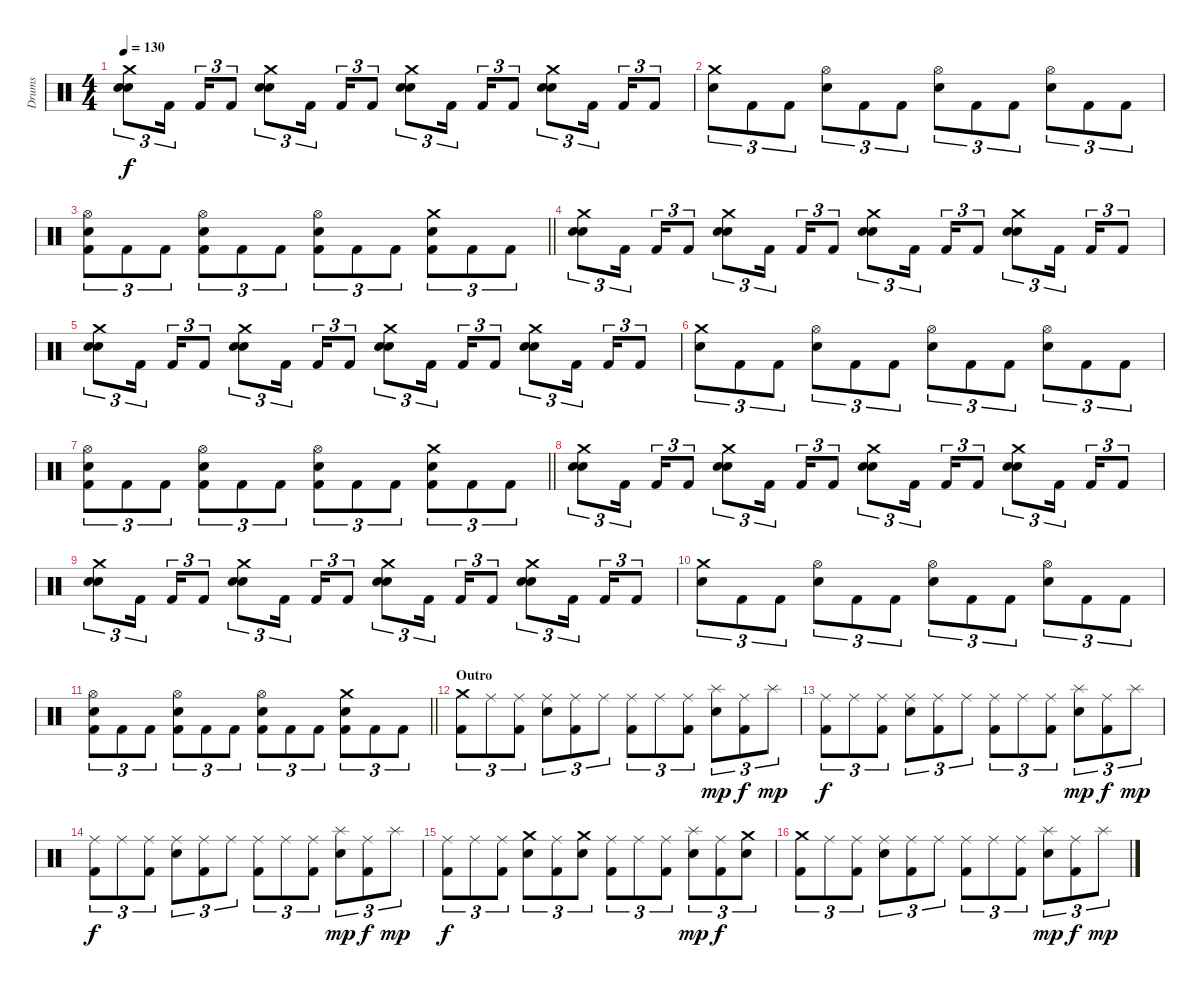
\track ("Drums" "Drums") {instrument percussion}
\staff {score}
\articulation defaults
\ts (4 4)
\tempo 130
\clef neutral
\ks c
("Crash medium (hit)" "Electric Snare (hit)" "Electric Snare (hit)").8{tu (3 2) dy f} "Kick (hit) 2".16{tu (3 2) beam splitsecondary} "Kick (hit) 2".16{tu (3 2)} "Kick (hit) 2".8{tu (3 2)} ("Crash medium (hit)" "Electric Snare (hit)" "Electric Snare (hit)").8{tu (3 2)} "Kick (hit) 2".16{tu (3 2) beam splitsecondary} "Kick (hit) 2".16{tu (3 2)} "Kick (hit) 2".8{tu (3 2)} ("Crash medium (hit)" "Electric Snare (hit)" "Electric Snare (hit)").8{tu (3 2)} "Kick (hit) 2".16{tu (3 2) beam splitsecondary} "Kick (hit) 2".16{tu (3 2)} "Kick (hit) 2".8{tu (3 2)} ("Crash medium (hit)" "Electric Snare (hit)" "Electric Snare (hit)").8{tu (3 2)} "Kick (hit) 2".16{tu (3 2) beam splitsecondary} "Kick (hit) 2".16{tu (3 2)} "Kick (hit) 2".8{tu (3 2)} |
("Crash medium (hit)" "Electric Snare (hit)").8{tu (3 2)} "Kick (hit) 2".8{tu (3 2)} "Kick (hit) 2".8{tu (3 2)} ("Hi-Hat (open)" "Electric Snare (hit)").8{tu (3 2)} "Kick (hit) 2".8{tu (3 2)} "Kick (hit) 2".8{tu (3 2)} ("Hi-Hat (open)" "Electric Snare (hit)").8{tu (3 2)} "Kick (hit) 2".8{tu (3 2)} "Kick (hit) 2".8{tu (3 2)} ("Hi-Hat (open)" "Electric Snare (hit)").8{tu (3 2)} "Kick (hit) 2".8{tu (3 2)} "Kick (hit) 2".8{tu (3 2)} |
\barLineRight lightlight
("Hi-Hat (open)" "Electric Snare (hit)" "Kick (hit) 2").8{tu (3 2)} "Kick (hit) 2".8{tu (3 2)} "Kick (hit) 2".8{tu (3 2)} ("Hi-Hat (open)" "Electric Snare (hit)" "Kick (hit) 2").8{tu (3 2)} "Kick (hit) 2".8{tu (3 2)} "Kick (hit) 2".8{tu (3 2)} ("Hi-Hat (open)" "Electric Snare (hit)" "Kick (hit) 2").8{tu (3 2)} "Kick (hit) 2".8{tu (3 2)} "Kick (hit) 2".8{tu (3 2)} ("Crash medium (hit)" "Electric Snare (hit)" "Kick (hit) 2").8{tu (3 2)} "Kick (hit) 2".8{tu (3 2)} "Kick (hit) 2".8{tu (3 2)} |
("Crash medium (hit)" "Electric Snare (hit)" "Electric Snare (hit)").8{tu (3 2)} "Kick (hit) 2".16{tu (3 2) beam splitsecondary} "Kick (hit) 2".16{tu (3 2)} "Kick (hit) 2".8{tu (3 2)} ("Crash medium (hit)" "Electric Snare (hit)" "Electric Snare (hit)").8{tu (3 2)} "Kick (hit) 2".16{tu (3 2) beam splitsecondary} "Kick (hit) 2".16{tu (3 2)} "Kick (hit) 2".8{tu (3 2)} ("Crash medium (hit)" "Electric Snare (hit)" "Electric Snare (hit)").8{tu (3 2)} "Kick (hit) 2".16{tu (3 2) beam splitsecondary} "Kick (hit) 2".16{tu (3 2)} "Kick (hit) 2".8{tu (3 2)} ("Crash medium (hit)" "Electric Snare (hit)" "Electric Snare (hit)").8{tu (3 2)} "Kick (hit) 2".16{tu (3 2) beam splitsecondary} "Kick (hit) 2".16{tu (3 2)} "Kick (hit) 2".8{tu (3 2)} |
("Crash medium (hit)" "Electric Snare (hit)" "Electric Snare (hit)").8{tu (3 2)} "Kick (hit) 2".16{tu (3 2) beam splitsecondary} "Kick (hit) 2".16{tu (3 2)} "Kick (hit) 2".8{tu (3 2)} ("Crash medium (hit)" "Electric Snare (hit)" "Electric Snare (hit)").8{tu (3 2)} "Kick (hit) 2".16{tu (3 2) beam splitsecondary} "Kick (hit) 2".16{tu (3 2)} "Kick (hit) 2".8{tu (3 2)} ("Crash medium (hit)" "Electric Snare (hit)" "Electric Snare (hit)").8{tu (3 2)} "Kick (hit) 2".16{tu (3 2) beam splitsecondary} "Kick (hit) 2".16{tu (3 2)} "Kick (hit) 2".8{tu (3 2)} ("Crash medium (hit)" "Electric Snare (hit)" "Electric Snare (hit)").8{tu (3 2)} "Kick (hit) 2".16{tu (3 2) beam splitsecondary} "Kick (hit) 2".16{tu (3 2)} "Kick (hit) 2".8{tu (3 2)} |
("Crash medium (hit)" "Electric Snare (hit)").8{tu (3 2)} "Kick (hit) 2".8{tu (3 2)} "Kick (hit) 2".8{tu (3 2)} ("Hi-Hat (open)" "Electric Snare (hit)").8{tu (3 2)} "Kick (hit) 2".8{tu (3 2)} "Kick (hit) 2".8{tu (3 2)} ("Hi-Hat (open)" "Electric Snare (hit)").8{tu (3 2)} "Kick (hit) 2".8{tu (3 2)} "Kick (hit) 2".8{tu (3 2)} ("Hi-Hat (open)" "Electric Snare (hit)").8{tu (3 2)} "Kick (hit) 2".8{tu (3 2)} "Kick (hit) 2".8{tu (3 2)} |
\barLineRight lightlight
("Hi-Hat (open)" "Electric Snare (hit)" "Kick (hit) 2").8{tu (3 2)} "Kick (hit) 2".8{tu (3 2)} "Kick (hit) 2".8{tu (3 2)} ("Hi-Hat (open)" "Electric Snare (hit)" "Kick (hit) 2").8{tu (3 2)} "Kick (hit) 2".8{tu (3 2)} "Kick (hit) 2".8{tu (3 2)} ("Hi-Hat (open)" "Electric Snare (hit)" "Kick (hit) 2").8{tu (3 2)} "Kick (hit) 2".8{tu (3 2)} "Kick (hit) 2".8{tu (3 2)} ("Crash medium (hit)" "Electric Snare (hit)" "Kick (hit) 2").8{tu (3 2)} "Kick (hit) 2".8{tu (3 2)} "Kick (hit) 2".8{tu (3 2)} |
("Crash medium (hit)" "Electric Snare (hit)" "Electric Snare (hit)").8{tu (3 2)} "Kick (hit) 2".16{tu (3 2) beam splitsecondary} "Kick (hit) 2".16{tu (3 2)} "Kick (hit) 2".8{tu (3 2)} ("Crash medium (hit)" "Electric Snare (hit)" "Electric Snare (hit)").8{tu (3 2)} "Kick (hit) 2".16{tu (3 2) beam splitsecondary} "Kick (hit) 2".16{tu (3 2)} "Kick (hit) 2".8{tu (3 2)} ("Crash medium (hit)" "Electric Snare (hit)" "Electric Snare (hit)").8{tu (3 2)} "Kick (hit) 2".16{tu (3 2) beam splitsecondary} "Kick (hit) 2".16{tu (3 2)} "Kick (hit) 2".8{tu (3 2)} ("Crash medium (hit)" "Electric Snare (hit)" "Electric Snare (hit)").8{tu (3 2)} "Kick (hit) 2".16{tu (3 2) beam splitsecondary} "Kick (hit) 2".16{tu (3 2)} "Kick (hit) 2".8{tu (3 2)} |
("Crash medium (hit)" "Electric Snare (hit)" "Electric Snare (hit)").8{tu (3 2)} "Kick (hit) 2".16{tu (3 2) beam splitsecondary} "Kick (hit) 2".16{tu (3 2)} "Kick (hit) 2".8{tu (3 2)} ("Crash medium (hit)" "Electric Snare (hit)" "Electric Snare (hit)").8{tu (3 2)} "Kick (hit) 2".16{tu (3 2) beam splitsecondary} "Kick (hit) 2".16{tu (3 2)} "Kick (hit) 2".8{tu (3 2)} ("Crash medium (hit)" "Electric Snare (hit)" "Electric Snare (hit)").8{tu (3 2)} "Kick (hit) 2".16{tu (3 2) beam splitsecondary} "Kick (hit) 2".16{tu (3 2)} "Kick (hit) 2".8{tu (3 2)} ("Crash medium (hit)" "Electric Snare (hit)" "Electric Snare (hit)").8{tu (3 2)} "Kick (hit) 2".16{tu (3 2) beam splitsecondary} "Kick (hit) 2".16{tu (3 2)} "Kick (hit) 2".8{tu (3 2)} |
("Crash medium (hit)" "Electric Snare (hit)").8{tu (3 2)} "Kick (hit) 2".8{tu (3 2)} "Kick (hit) 2".8{tu (3 2)} ("Hi-Hat (open)" "Electric Snare (hit)").8{tu (3 2)} "Kick (hit) 2".8{tu (3 2)} "Kick (hit) 2".8{tu (3 2)} ("Hi-Hat (open)" "Electric Snare (hit)").8{tu (3 2)} "Kick (hit) 2".8{tu (3 2)} "Kick (hit) 2".8{tu (3 2)} ("Hi-Hat (open)" "Electric Snare (hit)").8{tu (3 2)} "Kick (hit) 2".8{tu (3 2)} "Kick (hit) 2".8{tu (3 2)} |
\barLineRight lightlight
("Hi-Hat (open)" "Electric Snare (hit)" "Kick (hit) 2").8{tu (3 2)} "Kick (hit) 2".8{tu (3 2)} "Kick (hit) 2".8{tu (3 2)} ("Hi-Hat (open)" "Electric Snare (hit)" "Kick (hit) 2").8{tu (3 2)} "Kick (hit) 2".8{tu (3 2)} "Kick (hit) 2".8{tu (3 2)} ("Hi-Hat (open)" "Electric Snare (hit)" "Kick (hit) 2").8{tu (3 2)} "Kick (hit) 2".8{tu (3 2)} "Kick (hit) 2".8{tu (3 2)} ("Crash medium (hit)" "Electric Snare (hit)" "Kick (hit) 2").8{tu (3 2)} "Kick (hit) 2".8{tu (3 2)} "Kick (hit) 2".8{tu (3 2)} |
\section ("" "Outro")
("Crash medium (hit)" "Kick (hit) 2").8{tu (3 2)} "Ride (middle)".8{tu (3 2)} ("Ride (middle)" "Kick (hit) 2").8{tu (3 2)} ("Ride (middle)" "Electric Snare (hit)").8{tu (3 2)} ("Ride (middle)" "Kick (hit) 2").8{tu (3 2)} "Ride (middle)".8{tu (3 2)} ("Ride (middle)" "Kick (hit) 2").8{tu (3 2)} "Ride (middle)".8{tu (3 2)} ("Ride (middle)" "Kick (hit) 2").8{tu (3 2)} ("Splash (hit)" "Electric Snare (hit)").8{tu (3 2) dy mp} ("Ride (middle)" "Kick (hit) 2").8{tu (3 2) dy f} "Splash (hit)".8{tu (3 2) dy mp} |
("Ride (middle)" "Kick (hit) 2").8{tu (3 2) dy f} "Ride (middle)".8{tu (3 2)} ("Ride (middle)" "Kick (hit) 2").8{tu (3 2)} ("Ride (middle)" "Electric Snare (hit)").8{tu (3 2)} ("Ride (middle)" "Kick (hit) 2").8{tu (3 2)} "Ride (middle)".8{tu (3 2)} ("Ride (middle)" "Kick (hit) 2").8{tu (3 2)} "Ride (middle)".8{tu (3 2)} ("Ride (middle)" "Kick (hit) 2").8{tu (3 2)} ("Splash (hit)" "Electric Snare (hit)").8{tu (3 2) dy mp} ("Ride (middle)" "Kick (hit) 2").8{tu (3 2) dy f} "Splash (hit)".8{tu (3 2) dy mp} |
("Ride (middle)" "Kick (hit) 2").8{tu (3 2) dy f} "Ride (middle)".8{tu (3 2)} ("Ride (middle)" "Kick (hit) 2").8{tu (3 2)} ("Ride (middle)" "Electric Snare (hit)").8{tu (3 2)} ("Ride (middle)" "Kick (hit) 2").8{tu (3 2)} "Ride (middle)".8{tu (3 2)} ("Ride (middle)" "Kick (hit) 2").8{tu (3 2)} "Ride (middle)".8{tu (3 2)} ("Ride (middle)" "Kick (hit) 2").8{tu (3 2)} ("Splash (hit)" "Electric Snare (hit)").8{tu (3 2) dy mp} ("Ride (middle)" "Kick (hit) 2").8{tu (3 2) dy f} "Splash (hit)".8{tu (3 2) dy mp} |
("Ride (middle)" "Kick (hit) 2").8{tu (3 2) dy f} "Ride (middle)".8{tu (3 2)} ("Ride (middle)" "Kick (hit) 2").8{tu (3 2)} ("Crash medium (hit)" "Electric Snare (hit)").8{tu (3 2)} ("Ride (middle)" "Kick (hit) 2").8{tu (3 2)} ("Crash medium (hit)" "Electric Snare (hit)").8{tu (3 2)} ("Ride (middle)" "Kick (hit) 2").8{tu (3 2)} "Ride (middle)".8{tu (3 2)} ("Ride (middle)" "Kick (hit) 2").8{tu (3 2)} ("Splash (hit)" "Electric Snare (hit)").8{tu (3 2) dy mp} ("Ride (middle)" "Kick (hit) 2").8{tu (3 2) dy f} ("Crash medium (hit)" "Electric Snare (hit)").8{tu (3 2)} |
("Crash medium (hit)" "Kick (hit) 2").8{tu (3 2)} "Ride (middle)".8{tu (3 2)} ("Ride (middle)" "Kick (hit) 2").8{tu (3 2)} ("Ride (middle)" "Electric Snare (hit)").8{tu (3 2)} ("Ride (middle)" "Kick (hit) 2").8{tu (3 2)} "Ride (middle)".8{tu (3 2)} ("Ride (middle)" "Kick (hit) 2").8{tu (3 2)} "Ride (middle)".8{tu (3 2)} ("Ride (middle)" "Kick (hit) 2").8{tu (3 2)} ("Splash (hit)" "Electric Snare (hit)").8{tu (3 2) dy mp} ("Ride (middle)" "Kick (hit) 2").8{tu (3 2) dy f} "Splash (hit)".8{tu (3 2) dy mp}
